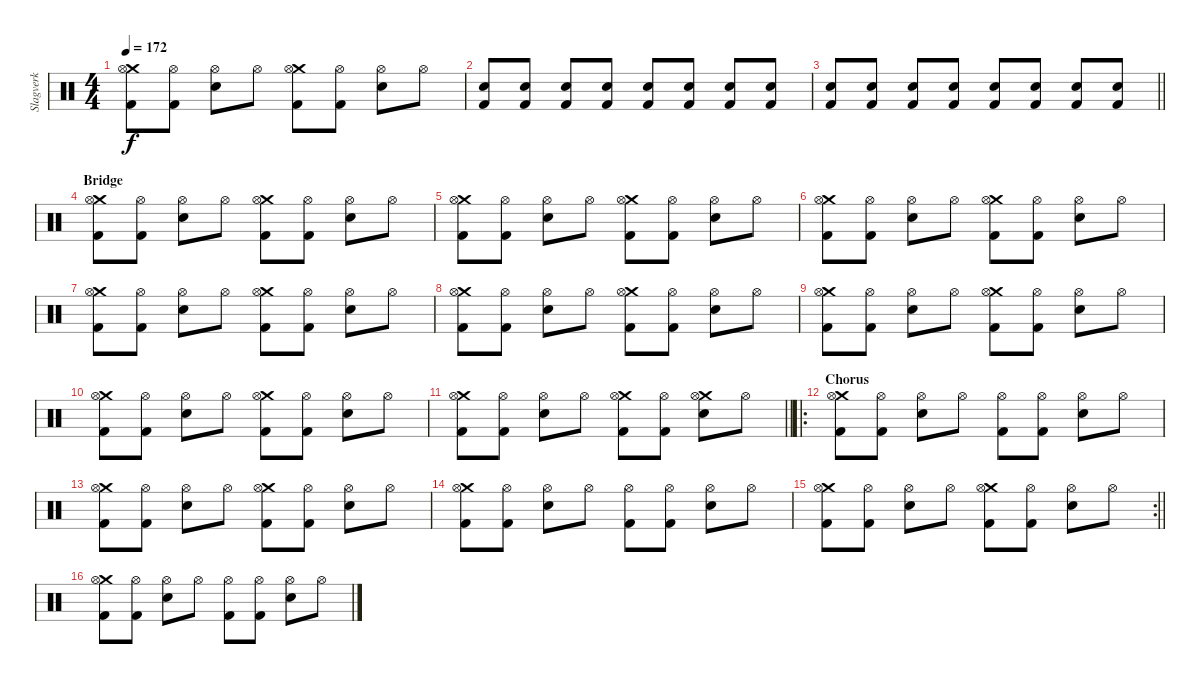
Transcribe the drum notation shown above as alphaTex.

\track ("Slagverk" "Slagverk") {instrument percussion}
\staff {score}
\articulation defaults
\ts (4 4)
\tempo 172
\clef neutral
\ks c
("Crash medium (hit)" "Kick (hit) 2" "Hi-Hat (open)").8{dy f} ("Kick (hit) 2" "Hi-Hat (open)").8 ("Snare (hit) 2" "Hi-Hat (open)").8 "Hi-Hat (open)".8 ("Crash medium (hit)" "Kick (hit) 2" "Hi-Hat (open)").8 ("Kick (hit) 2" "Hi-Hat (open)").8 ("Snare (hit) 2" "Hi-Hat (open)").8 "Hi-Hat (open)".8 |
("Snare (hit) 2" "Kick (hit) 2").8 ("Snare (hit) 2" "Kick (hit) 2").8 ("Snare (hit) 2" "Kick (hit) 2").8 ("Snare (hit) 2" "Kick (hit) 2").8 ("Snare (hit) 2" "Kick (hit) 2").8 ("Snare (hit) 2" "Kick (hit) 2").8 ("Snare (hit) 2" "Kick (hit) 2").8 ("Snare (hit) 2" "Kick (hit) 2").8 |
\barLineRight lightlight
("Snare (hit) 2" "Kick (hit) 2").8 ("Snare (hit) 2" "Kick (hit) 2").8 ("Snare (hit) 2" "Kick (hit) 2").8 ("Snare (hit) 2" "Kick (hit) 2").8 ("Snare (hit) 2" "Kick (hit) 2").8 ("Snare (hit) 2" "Kick (hit) 2").8 ("Snare (hit) 2" "Kick (hit) 2").8 ("Snare (hit) 2" "Kick (hit) 2").8 |
\section ("" "Bridge")
("Crash medium (hit)" "Kick (hit) 2" "Hi-Hat (open)").8 ("Kick (hit) 2" "Hi-Hat (open)").8 ("Snare (hit) 2" "Hi-Hat (open)").8 "Hi-Hat (open)".8 ("Crash medium (hit)" "Kick (hit) 2" "Hi-Hat (open)").8 ("Kick (hit) 2" "Hi-Hat (open)").8 ("Snare (hit) 2" "Hi-Hat (open)").8 "Hi-Hat (open)".8 |
("Crash medium (hit)" "Kick (hit) 2" "Hi-Hat (open)").8 ("Kick (hit) 2" "Hi-Hat (open)").8 ("Snare (hit) 2" "Hi-Hat (open)").8 "Hi-Hat (open)".8 ("Crash medium (hit)" "Kick (hit) 2" "Hi-Hat (open)").8 ("Kick (hit) 2" "Hi-Hat (open)").8 ("Snare (hit) 2" "Hi-Hat (open)").8 "Hi-Hat (open)".8 |
("Crash medium (hit)" "Kick (hit) 2" "Hi-Hat (open)").8 ("Kick (hit) 2" "Hi-Hat (open)").8 ("Snare (hit) 2" "Hi-Hat (open)").8 "Hi-Hat (open)".8 ("Crash medium (hit)" "Kick (hit) 2" "Hi-Hat (open)").8 ("Kick (hit) 2" "Hi-Hat (open)").8 ("Snare (hit) 2" "Hi-Hat (open)").8 "Hi-Hat (open)".8 |
("Crash medium (hit)" "Kick (hit) 2" "Hi-Hat (open)").8 ("Kick (hit) 2" "Hi-Hat (open)").8 ("Snare (hit) 2" "Hi-Hat (open)").8 "Hi-Hat (open)".8 ("Crash medium (hit)" "Kick (hit) 2" "Hi-Hat (open)").8 ("Kick (hit) 2" "Hi-Hat (open)").8 ("Snare (hit) 2" "Hi-Hat (open)").8 "Hi-Hat (open)".8 |
("Crash medium (hit)" "Kick (hit) 2" "Hi-Hat (open)").8 ("Kick (hit) 2" "Hi-Hat (open)").8 ("Snare (hit) 2" "Hi-Hat (open)").8 "Hi-Hat (open)".8 ("Crash medium (hit)" "Kick (hit) 2" "Hi-Hat (open)").8 ("Kick (hit) 2" "Hi-Hat (open)").8 ("Snare (hit) 2" "Hi-Hat (open)").8 "Hi-Hat (open)".8 |
("Crash medium (hit)" "Kick (hit) 2" "Hi-Hat (open)").8 ("Kick (hit) 2" "Hi-Hat (open)").8 ("Snare (hit) 2" "Hi-Hat (open)").8 "Hi-Hat (open)".8 ("Crash medium (hit)" "Kick (hit) 2" "Hi-Hat (open)").8 ("Kick (hit) 2" "Hi-Hat (open)").8 ("Snare (hit) 2" "Hi-Hat (open)").8 "Hi-Hat (open)".8 |
("Crash medium (hit)" "Kick (hit) 2" "Hi-Hat (open)").8 ("Kick (hit) 2" "Hi-Hat (open)").8 ("Snare (hit) 2" "Hi-Hat (open)").8 "Hi-Hat (open)".8 ("Crash medium (hit)" "Kick (hit) 2" "Hi-Hat (open)").8 ("Kick (hit) 2" "Hi-Hat (open)").8 ("Snare (hit) 2" "Hi-Hat (open)").8 "Hi-Hat (open)".8 |
\barLineRight lightlight
("Crash medium (hit)" "Kick (hit) 2" "Hi-Hat (open)").8 ("Kick (hit) 2" "Hi-Hat (open)").8 ("Snare (hit) 2" "Hi-Hat (open)").8 "Hi-Hat (open)".8 ("Crash medium (hit)" "Kick (hit) 2" "Hi-Hat (open)").8 ("Kick (hit) 2" "Hi-Hat (open)").8 ("Crash medium (hit)" "Snare (hit) 2" "Hi-Hat (open)").8 "Hi-Hat (open)".8 |
\ro
\section ("" "Chorus")
("Crash medium (hit)" "Kick (hit) 2" "Hi-Hat (open)").8 ("Kick (hit) 2" "Hi-Hat (open)").8 ("Snare (hit) 2" "Hi-Hat (open)").8 "Hi-Hat (open)".8 ("Kick (hit) 2" "Hi-Hat (open)").8 ("Kick (hit) 2" "Hi-Hat (open)").8 ("Snare (hit) 2" "Hi-Hat (open)").8 "Hi-Hat (open)".8 |
("Crash medium (hit)" "Kick (hit) 2" "Hi-Hat (open)").8 ("Kick (hit) 2" "Hi-Hat (open)").8 ("Snare (hit) 2" "Hi-Hat (open)").8 "Hi-Hat (open)".8 ("Crash medium (hit)" "Kick (hit) 2" "Hi-Hat (open)").8 ("Kick (hit) 2" "Hi-Hat (open)").8 ("Snare (hit) 2" "Hi-Hat (open)").8 "Hi-Hat (open)".8 |
("Crash medium (hit)" "Kick (hit) 2" "Hi-Hat (open)").8 ("Kick (hit) 2" "Hi-Hat (open)").8 ("Snare (hit) 2" "Hi-Hat (open)").8 "Hi-Hat (open)".8 ("Kick (hit) 2" "Hi-Hat (open)").8 ("Kick (hit) 2" "Hi-Hat (open)").8 ("Snare (hit) 2" "Hi-Hat (open)").8 "Hi-Hat (open)".8 |
\rc 2
\barLineRight lightlight
("Crash medium (hit)" "Kick (hit) 2" "Hi-Hat (open)").8 ("Kick (hit) 2" "Hi-Hat (open)").8 ("Snare (hit) 2" "Hi-Hat (open)").8 "Hi-Hat (open)".8 ("Crash medium (hit)" "Kick (hit) 2" "Hi-Hat (open)").8 ("Kick (hit) 2" "Hi-Hat (open)").8 ("Snare (hit) 2" "Hi-Hat (open)").8 "Hi-Hat (open)".8 |
("Crash medium (hit)" "Kick (hit) 2" "Hi-Hat (open)").8 ("Kick (hit) 2" "Hi-Hat (open)").8 ("Snare (hit) 2" "Hi-Hat (open)").8 "Hi-Hat (open)".8 ("Kick (hit) 2" "Hi-Hat (open)").8 ("Kick (hit) 2" "Hi-Hat (open)").8 ("Snare (hit) 2" "Hi-Hat (open)").8 "Hi-Hat (open)".8
